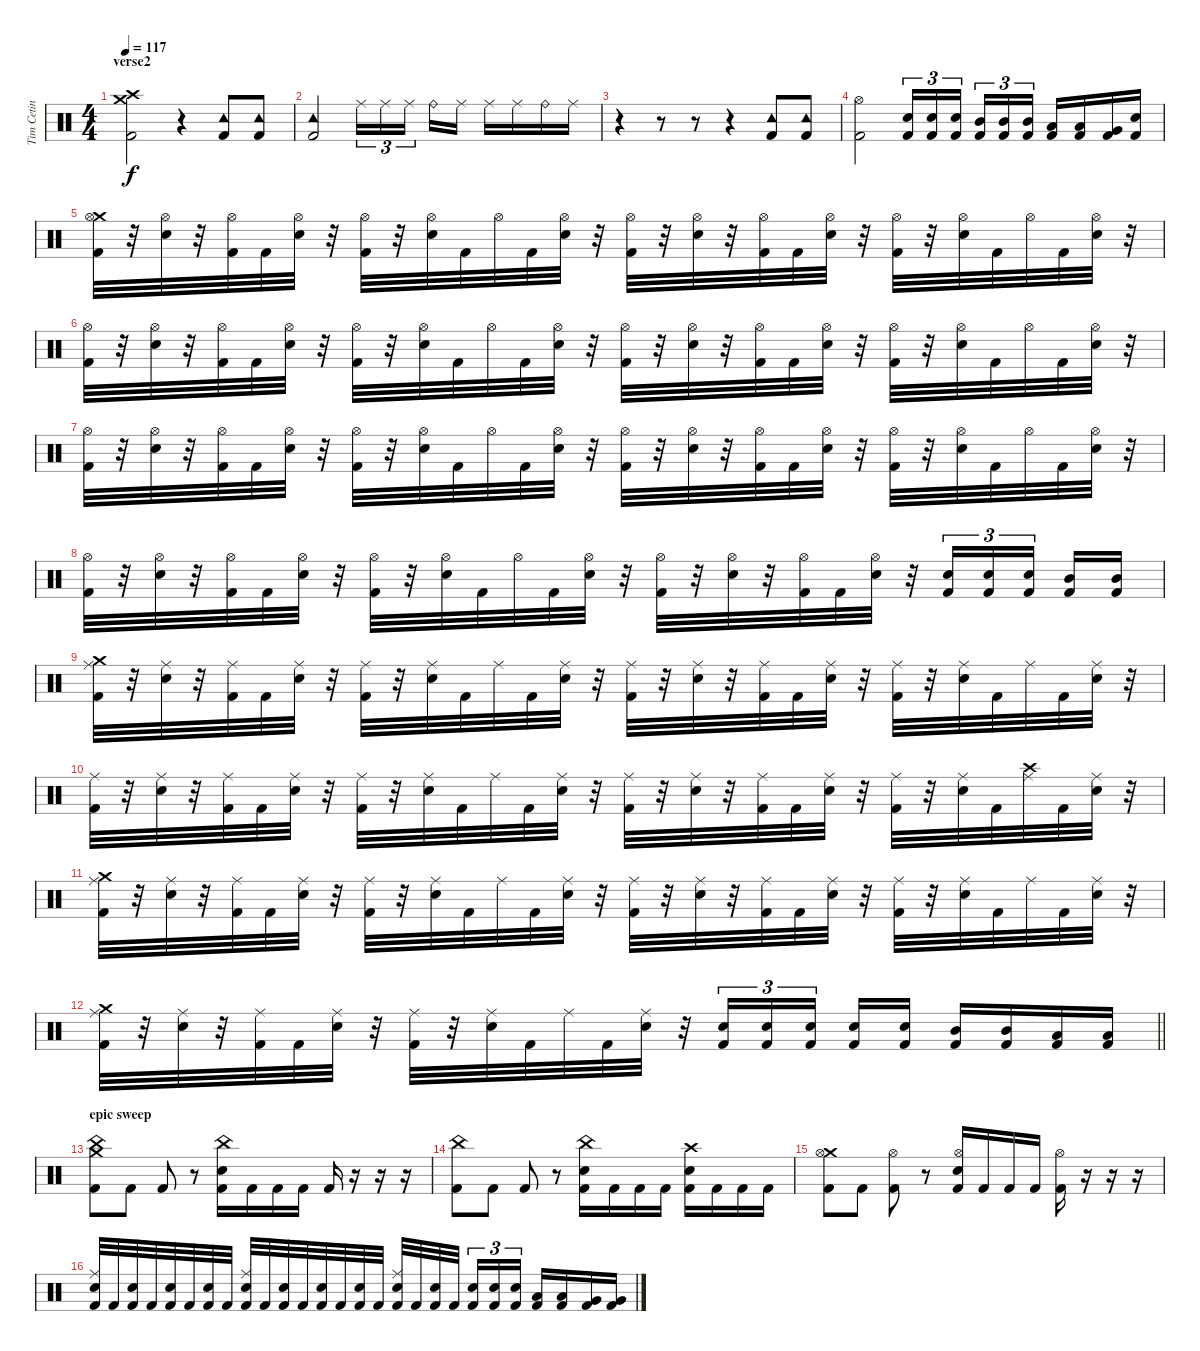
\track ("Tim Cetin" "Tim Cetin") {instrument percussion}
\staff {score}
\articulation defaults
\ts (4 4)
\section ("" "verse2")
\tempo 117
\clef neutral
\ks c
("Crash medium (hit)" "Crash high (hit)" "Kick (hit) 2").2{dy f} r.4 ("Tambourine (hit)" "Kick (hit) 2").8 ("Tambourine (hit)" "Kick (hit) 2").8 |
("Tambourine (hit)" "Kick (hit) 2").2 "Ride (middle)".16{tu (3 2)} "Ride (middle)".16{tu (3 2)} "Ride (middle)".16{tu (3 2) beam splitsecondary} "Ride (bell)".16 "Ride (middle)".16 "Ride (middle)".16 "Ride (middle)".16 "Ride (bell)".16 "Ride (middle)".16 |
r.4 r.8 r.8 r.4 ("Tambourine (hit)" "Kick (hit) 2").8 ("Tambourine (hit)" "Kick (hit) 2").8 |
("Hi-Hat (open)" "Kick (hit) 2").2 ("Snare (hit) 2" "Kick (hit) 2").16{tu (3 2)} ("Snare (hit) 2" "Kick (hit) 2").16{tu (3 2)} ("Snare (hit) 2" "Kick (hit) 2").16{tu (3 2) beam splitsecondary} ("Mid Tom (hit)" "Kick (hit) 2").16{tu (3 2)} ("Mid Tom (hit)" "Kick (hit) 2").16{tu (3 2)} ("Mid Tom (hit)" "Kick (hit) 2").16{tu (3 2)} ("Low Tom (hit)" "Kick (hit) 2").16 ("Low Tom (hit)" "Kick (hit) 2").16 ("Very Low Tom (hit)" "Kick (hit) 2").16 ("Snare (hit) 2" "Kick (hit) 2").16 |
("Crash medium (hit)" "Hi-Hat (open)" "Kick (hit) 2").32 r.32 ("Hi-Hat (open)" "Snare (hit) 2").32 r.32 ("Hi-Hat (open)" "Kick (hit) 2").32 "Kick (hit) 2".32 ("Hi-Hat (open)" "Snare (hit) 2").32 r.32 ("Hi-Hat (open)" "Kick (hit) 2").32 r.32 ("Hi-Hat (open)" "Snare (hit) 2").32 "Kick (hit) 2".32 "Hi-Hat (open)".32 "Kick (hit) 2".32 ("Hi-Hat (open)" "Snare (hit) 2").32 r.32 ("Hi-Hat (open)" "Kick (hit) 2").32 r.32 ("Hi-Hat (open)" "Snare (hit) 2").32 r.32 ("Hi-Hat (open)" "Kick (hit) 2").32 "Kick (hit) 2".32 ("Hi-Hat (open)" "Snare (hit) 2").32 r.32 ("Hi-Hat (open)" "Kick (hit) 2").32 r.32 ("Hi-Hat (open)" "Snare (hit) 2").32 "Kick (hit) 2".32 "Hi-Hat (open)".32 "Kick (hit) 2".32 ("Hi-Hat (open)" "Snare (hit) 2").32 r.32 |
("Hi-Hat (open)" "Kick (hit) 2").32 r.32 ("Hi-Hat (open)" "Snare (hit) 2").32 r.32 ("Hi-Hat (open)" "Kick (hit) 2").32 "Kick (hit) 2".32 ("Hi-Hat (open)" "Snare (hit) 2").32 r.32 ("Hi-Hat (open)" "Kick (hit) 2").32 r.32 ("Hi-Hat (open)" "Snare (hit) 2").32 "Kick (hit) 2".32 "Hi-Hat (open)".32 "Kick (hit) 2".32 ("Hi-Hat (open)" "Snare (hit) 2").32 r.32 ("Hi-Hat (open)" "Kick (hit) 2").32 r.32 ("Hi-Hat (open)" "Snare (hit) 2").32 r.32 ("Hi-Hat (open)" "Kick (hit) 2").32 "Kick (hit) 2".32 ("Hi-Hat (open)" "Snare (hit) 2").32 r.32 ("Hi-Hat (open)" "Kick (hit) 2").32 r.32 ("Hi-Hat (open)" "Snare (hit) 2").32 "Kick (hit) 2".32 "Hi-Hat (open)".32 "Kick (hit) 2".32 ("Hi-Hat (open)" "Snare (hit) 2").32 r.32 |
("Hi-Hat (open)" "Kick (hit) 2").32 r.32 ("Hi-Hat (open)" "Snare (hit) 2").32 r.32 ("Hi-Hat (open)" "Kick (hit) 2").32 "Kick (hit) 2".32 ("Hi-Hat (open)" "Snare (hit) 2").32 r.32 ("Hi-Hat (open)" "Kick (hit) 2").32 r.32 ("Hi-Hat (open)" "Snare (hit) 2").32 "Kick (hit) 2".32 "Hi-Hat (open)".32 "Kick (hit) 2".32 ("Hi-Hat (open)" "Snare (hit) 2").32 r.32 ("Hi-Hat (open)" "Kick (hit) 2").32 r.32 ("Hi-Hat (open)" "Snare (hit) 2").32 r.32 ("Hi-Hat (open)" "Kick (hit) 2").32 "Kick (hit) 2".32 ("Hi-Hat (open)" "Snare (hit) 2").32 r.32 ("Hi-Hat (open)" "Kick (hit) 2").32 r.32 ("Hi-Hat (open)" "Snare (hit) 2").32 "Kick (hit) 2".32 "Hi-Hat (open)".32 "Kick (hit) 2".32 ("Hi-Hat (open)" "Snare (hit) 2").32 r.32 |
("Hi-Hat (open)" "Kick (hit) 2").32 r.32 ("Hi-Hat (open)" "Snare (hit) 2").32 r.32 ("Hi-Hat (open)" "Kick (hit) 2").32 "Kick (hit) 2".32 ("Hi-Hat (open)" "Snare (hit) 2").32 r.32 ("Hi-Hat (open)" "Kick (hit) 2").32 r.32 ("Hi-Hat (open)" "Snare (hit) 2").32 "Kick (hit) 2".32 "Hi-Hat (open)".32 "Kick (hit) 2".32 ("Hi-Hat (open)" "Snare (hit) 2").32 r.32 ("Hi-Hat (open)" "Kick (hit) 2").32 r.32 ("Hi-Hat (open)" "Snare (hit) 2").32 r.32 ("Hi-Hat (open)" "Kick (hit) 2").32 "Kick (hit) 2".32 ("Hi-Hat (open)" "Snare (hit) 2").32 r.32 ("Snare (hit) 2" "Kick (hit) 2").16{tu (3 2)} ("Snare (hit) 2" "Kick (hit) 2").16{tu (3 2)} ("Snare (hit) 2" "Kick (hit) 2").16{tu (3 2) beam splitsecondary} ("Mid Tom (hit)" "Kick (hit) 2").16 ("Mid Tom (hit)" "Kick (hit) 2").16 |
("Crash medium (hit)" "Ride (middle)" "Kick (hit) 2").32 r.32 ("Ride (middle)" "Snare (hit) 2").32 r.32 ("Ride (middle)" "Kick (hit) 2").32 "Kick (hit) 2".32 ("Ride (middle)" "Snare (hit) 2").32 r.32 ("Ride (middle)" "Kick (hit) 2").32 r.32 ("Ride (middle)" "Snare (hit) 2").32 "Kick (hit) 2".32 "Ride (middle)".32 "Kick (hit) 2".32 ("Ride (middle)" "Snare (hit) 2").32 r.32 ("Ride (middle)" "Kick (hit) 2").32 r.32 ("Ride (middle)" "Snare (hit) 2").32 r.32 ("Ride (middle)" "Kick (hit) 2").32 "Kick (hit) 2".32 ("Ride (middle)" "Snare (hit) 2").32 r.32 ("Ride (middle)" "Kick (hit) 2").32 r.32 ("Ride (middle)" "Snare (hit) 2").32 "Kick (hit) 2".32 "Ride (middle)".32 "Kick (hit) 2".32 ("Ride (middle)" "Snare (hit) 2").32 r.32 |
("Ride (middle)" "Kick (hit) 2").32 r.32 ("Ride (middle)" "Snare (hit) 2").32 r.32 ("Ride (middle)" "Kick (hit) 2").32 "Kick (hit) 2".32 ("Ride (middle)" "Snare (hit) 2").32 r.32 ("Ride (middle)" "Kick (hit) 2").32 r.32 ("Ride (middle)" "Snare (hit) 2").32 "Kick (hit) 2".32 "Ride (middle)".32 "Kick (hit) 2".32 ("Ride (middle)" "Snare (hit) 2").32 r.32 ("Ride (middle)" "Kick (hit) 2").32 r.32 ("Ride (middle)" "Snare (hit) 2").32 r.32 ("Ride (middle)" "Kick (hit) 2").32 "Kick (hit) 2".32 ("Ride (middle)" "Snare (hit) 2").32 r.32 ("Ride (middle)" "Kick (hit) 2").32 r.32 ("Ride (middle)" "Snare (hit) 2").32 "Kick (hit) 2".32 ("Crash high (hit)" "Ride (middle)").32 "Kick (hit) 2".32 ("Ride (middle)" "Snare (hit) 2").32 r.32 |
("Crash medium (hit)" "Ride (middle)" "Kick (hit) 2").32 r.32 ("Ride (middle)" "Snare (hit) 2").32 r.32 ("Ride (middle)" "Kick (hit) 2").32 "Kick (hit) 2".32 ("Ride (middle)" "Snare (hit) 2").32 r.32 ("Ride (middle)" "Kick (hit) 2").32 r.32 ("Ride (middle)" "Snare (hit) 2").32 "Kick (hit) 2".32 "Ride (middle)".32 "Kick (hit) 2".32 ("Ride (middle)" "Snare (hit) 2").32 r.32 ("Ride (middle)" "Kick (hit) 2").32 r.32 ("Ride (middle)" "Snare (hit) 2").32 r.32 ("Ride (middle)" "Kick (hit) 2").32 "Kick (hit) 2".32 ("Ride (middle)" "Snare (hit) 2").32 r.32 ("Ride (middle)" "Kick (hit) 2").32 r.32 ("Ride (middle)" "Snare (hit) 2").32 "Kick (hit) 2".32 "Ride (middle)".32 "Kick (hit) 2".32 ("Ride (middle)" "Snare (hit) 2").32 r.32 |
\barLineRight lightlight
("Crash medium (hit)" "Ride (middle)" "Kick (hit) 2").32 r.32 ("Ride (middle)" "Snare (hit) 2").32 r.32 ("Ride (middle)" "Kick (hit) 2").32 "Kick (hit) 2".32 ("Ride (middle)" "Snare (hit) 2").32 r.32 ("Ride (middle)" "Kick (hit) 2").32 r.32 ("Ride (middle)" "Snare (hit) 2").32 "Kick (hit) 2".32 "Ride (middle)".32 "Kick (hit) 2".32 ("Ride (middle)" "Snare (hit) 2").32 r.32 ("Snare (hit) 2" "Kick (hit) 2").16{tu (3 2)} ("Snare (hit) 2" "Kick (hit) 2").16{tu (3 2)} ("Snare (hit) 2" "Kick (hit) 2").16{tu (3 2) beam splitsecondary} ("Snare (hit) 2" "Kick (hit) 2").16 ("Snare (hit) 2" "Kick (hit) 2").16 ("Mid Tom (hit)" "Kick (hit) 2").16 ("Mid Tom (hit)" "Kick (hit) 2").16 ("Low Tom (hit)" "Kick (hit) 2").16 ("Low Tom (hit)" "Kick (hit) 2").16 |
\section ("" "epic sweep")
("China (hit)" "Crash medium (hit)" "Kick (hit) 2").8 "Kick (hit) 2".8 "Kick (hit) 2".8 r.8 ("China (hit)" "Snare (hit) 2" "Kick (hit) 2").16 "Kick (hit) 2".16 "Kick (hit) 2".16 "Kick (hit) 2".16 "Kick (hit) 2".16 r.16 r.16 r.16 |
("China (hit)" "Kick (hit) 2").8 "Kick (hit) 2".8 "Kick (hit) 2".8 r.8 ("China (hit)" "Snare (hit) 2" "Kick (hit) 2").16 "Kick (hit) 2".16 "Kick (hit) 2".16 "Kick (hit) 2".16 ("Crash high (hit)" "Snare (hit) 2" "Kick (hit) 2").16 "Kick (hit) 2".16 "Kick (hit) 2".16 "Kick (hit) 2".16 |
("Crash medium (hit)" "Hi-Hat (open)" "Kick (hit) 2").8 "Kick (hit) 2".8 ("Hi-Hat (open)" "Kick (hit) 2").8 r.8 ("Hi-Hat (open)" "Snare (hit) 2" "Kick (hit) 2").16 "Kick (hit) 2".16 "Kick (hit) 2".16 "Kick (hit) 2".16 ("Hi-Hat (open)" "Kick (hit) 2").16 r.16 r.16 r.16 |
("Ride (middle)" "Snare (hit) 2" "Kick (hit) 2").32 "Kick (hit) 2".32 ("Snare (hit) 2" "Kick (hit) 2").32 "Kick (hit) 2".32 ("Snare (hit) 2" "Kick (hit) 2").32 "Kick (hit) 2".32 ("Snare (hit) 2" "Kick (hit) 2").32 "Kick (hit) 2".32 ("Ride (middle)" "Snare (hit) 2" "Kick (hit) 2").32 "Kick (hit) 2".32 ("Snare (hit) 2" "Kick (hit) 2").32 "Kick (hit) 2".32 ("Snare (hit) 2" "Kick (hit) 2").32 "Kick (hit) 2".32 ("Snare (hit) 2" "Kick (hit) 2").32 "Kick (hit) 2".32 ("Ride (middle)" "Snare (hit) 2" "Kick (hit) 2").32 "Kick (hit) 2".32 ("Snare (hit) 2" "Kick (hit) 2").32 "Kick (hit) 2".32{beam splitsecondary} ("Snare (hit) 2" "Kick (hit) 2").16{tu (3 2)} ("Snare (hit) 2" "Kick (hit) 2").16{tu (3 2)} ("Snare (hit) 2" "Kick (hit) 2").16{tu (3 2)} ("Low Tom (hit)" "Kick (hit) 2").16 ("Low Tom (hit)" "Kick (hit) 2").16 ("Very Low Tom (hit)" "Kick (hit) 2").16 ("Very Low Tom (hit)" "Kick (hit) 2").16
